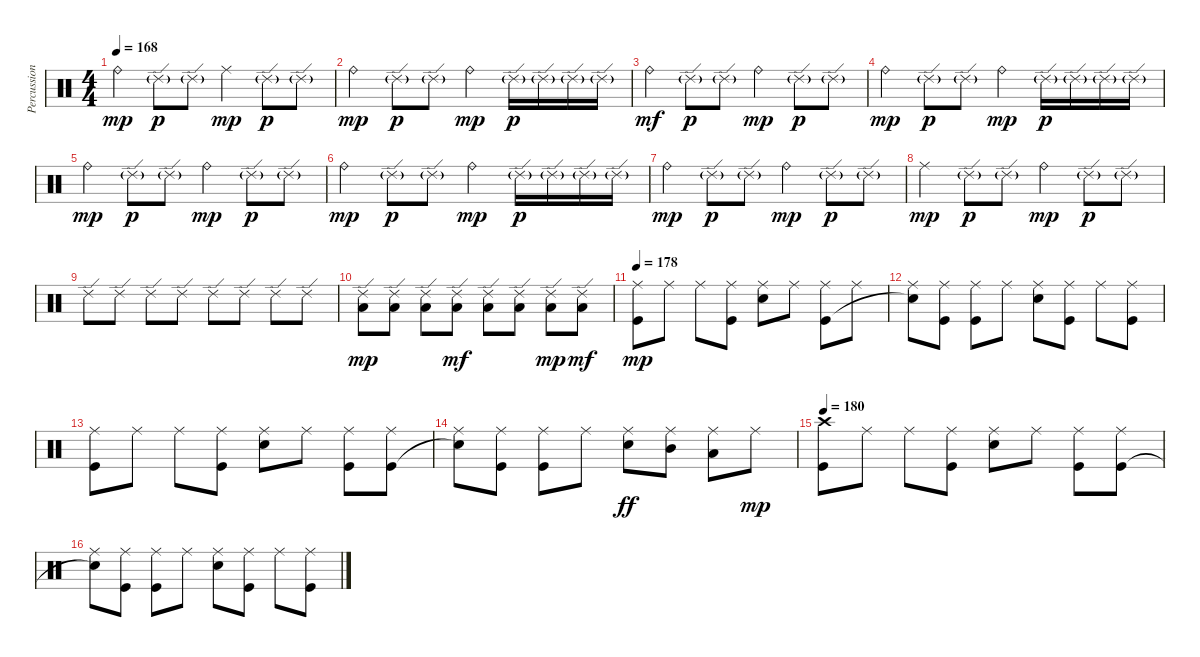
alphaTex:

\track ("Percussion" "Percussion") {instrument percussion}
\staff {score}
\articulation defaults
\ts (4 4)
\tempo 168
\clef neutral
\ks c "Ride (bell)".4{dy mp} "Ride (edge) 2"{g}.8{dy p} "Ride (edge) 2"{g}.8 "Ride (middle)".4{dy mp} "Ride (edge) 2"{g}.8{dy p} "Ride (edge) 2"{g}.8
|
"Ride (bell)".4{dy mp} "Ride (edge) 2"{g}.8{dy p} "Ride (edge) 2"{g}.8 "Ride (bell)".4{dy mp} "Ride (edge) 2"{g}.16{dy p} "Ride (edge) 2"{g}.16 "Ride (edge) 2"{g}.16 "Ride (edge) 2"{g}.16 |
"Ride (bell)".4{dy mf} "Ride (edge) 2"{g}.8{dy p} "Ride (edge) 2"{g}.8 "Ride (bell)".4{dy mp} "Ride (edge) 2"{g}.8{dy p} "Ride (edge) 2"{g}.8 |
"Ride (bell)".4{dy mp} "Ride (edge) 2"{g}.8{dy p} "Ride (edge) 2"{g}.8 "Ride (bell)".4{dy mp} "Ride (edge) 2"{g}.16{dy p} "Ride (edge) 2"{g}.16 "Ride (edge) 2"{g}.16 "Ride (edge) 2"{g}.16 |
"Ride (bell)".4{dy mp} "Ride (edge) 2"{g}.8{dy p} "Ride (edge) 2"{g}.8 "Ride (bell)".4{dy mp} "Ride (edge) 2"{g}.8{dy p} "Ride (edge) 2"{g}.8 |
"Ride (bell)".4{dy mp} "Ride (edge) 2"{g}.8{dy p} "Ride (edge) 2"{g}.8 "Ride (bell)".4{dy mp} "Ride (edge) 2"{g}.16{dy p} "Ride (edge) 2"{g}.16 "Ride (edge) 2"{g}.16 "Ride (edge) 2"{g}.16 |
"Ride (bell)".4{dy mp} "Ride (edge) 2"{g}.8{dy p} "Ride (edge) 2"{g}.8 "Ride (bell)".4{dy mp} "Ride (edge) 2"{g}.8{dy p} "Ride (edge) 2"{g}.8 |
"Ride (middle)".4{dy mp} "Ride (edge) 2"{g}.8{dy p} "Ride (edge) 2"{g}.8 "Ride (bell)".4{dy mp} "Ride (edge) 2"{g}.8{dy p} "Ride (edge) 2"{g}.8 |
"Ride (edge) 2".8 "Ride (edge) 2".8 "Ride (edge) 2".8 "Ride (edge) 2".8 "Ride (edge) 2".8 "Ride (edge) 2".8 "Ride (edge) 2".8 "Ride (edge) 2".8 |
("Ride (edge) 2" "Low Floor Tom (hit)").8{dy mp} ("Ride (edge) 2" "Low Floor Tom (hit)").8 ("Ride (edge) 2" "Low Floor Tom (hit)").8 ("Ride (edge) 2" "Low Floor Tom (hit)").8{dy mf} ("Ride (edge) 2" "Low Floor Tom (hit)").8 ("Ride (edge) 2" "Low Floor Tom (hit)").8 ("Ride (edge) 2" "Low Floor Tom (hit)").8{dy mp} ("Ride (edge) 2" "Low Floor Tom (hit)").8{dy mf} |
\tempo 178
("Ride (middle)" "Kick (hit)").8{dy mp} "Ride (middle)".8 "Ride (middle)".8 ("Ride (middle)" "Kick (hit)").8 ("Ride (middle)" "Electric Snare (hit)").8 "Ride (middle)".8 ("Ride (middle)" "Kick (hit)").8 "Ride (middle)".8 |
("Ride (middle)" "Snare (hit)"{t}).8 ("Ride (middle)" "Kick (hit)").8 ("Ride (middle)" "Kick (hit)").8 "Ride (middle)".8 ("Ride (middle)" "Electric Snare (hit)").8 ("Ride (middle)" "Kick (hit)").8 "Ride (middle)".8 ("Ride (middle)" "Kick (hit)").8 |
("Ride (middle)" "Kick (hit)").8 "Ride (middle)".8 "Ride (middle)".8 ("Ride (middle)" "Kick (hit)").8 ("Ride (middle)" "Electric Snare (hit)").8 "Ride (middle)".8 ("Ride (middle)" "Kick (hit)").8 ("Ride (middle)" "Kick (hit)").8 |
("Ride (middle)" "Snare (hit)"{t}).8 ("Ride (middle)" "Kick (hit)").8 ("Ride (middle)" "Kick (hit)").8 "Ride (middle)".8 ("Ride (middle)" "Electric Snare (hit)").8{dy ff} ("Ride (middle)" "Mid Tom (hit)").8 ("Ride (middle)" "Low Tom (hit)").8 "Ride (middle)".8{dy mp} |
\tempo 180
("Crash high (hit)" "Kick (hit)").8 "Ride (middle)".8 "Ride (middle)".8 ("Ride (middle)" "Kick (hit)").8 ("Ride (middle)" "Electric Snare (hit)").8 "Ride (middle)".8 ("Ride (middle)" "Kick (hit)").8 ("Ride (middle)" "Kick (hit)").8 |
("Ride (middle)" "Snare (hit)"{t}).8 ("Ride (middle)" "Kick (hit)").8 ("Ride (middle)" "Kick (hit)").8 "Ride (middle)".8 ("Ride (middle)" "Electric Snare (hit)").8 ("Ride (middle)" "Kick (hit)").8 "Ride (middle)".8 ("Ride (middle)" "Kick (hit)").8
